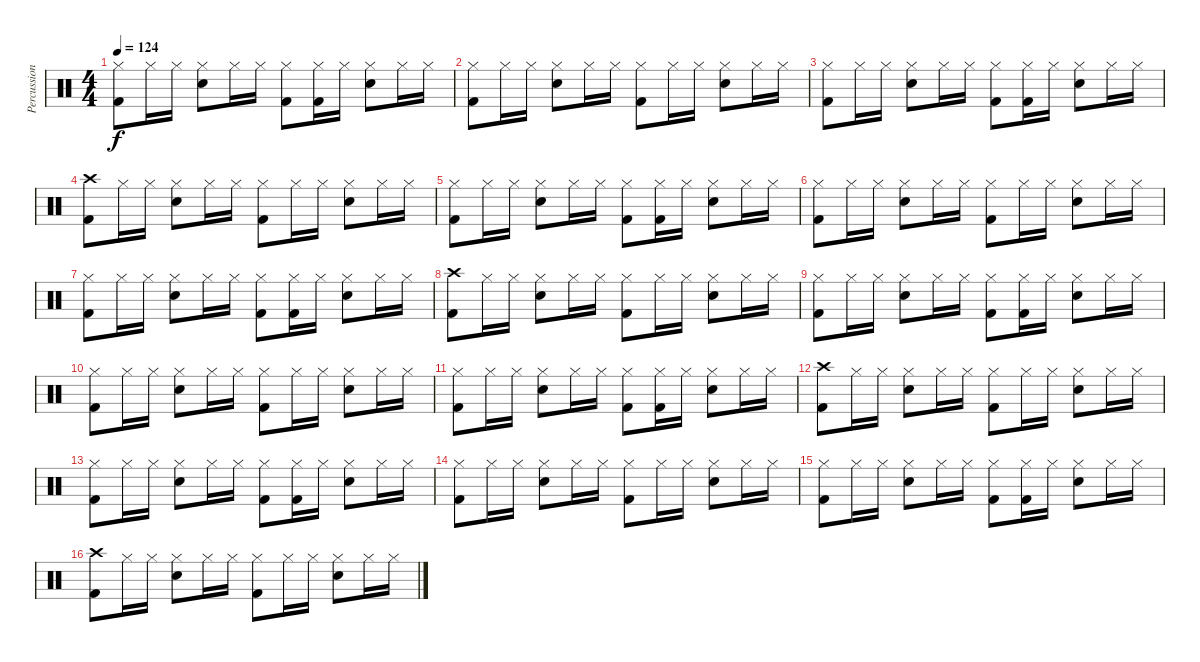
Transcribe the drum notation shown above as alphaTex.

\track ("Percussion" "Percussion") {instrument percussion}
\staff {score}
\articulation defaults
\ts (4 4)
\tempo 124
\clef neutral
\ks c
("Hi-Hat (closed)" "Kick (hit) 2").8{dy f} "Hi-Hat (closed)".16 "Hi-Hat (closed)".16 ("Hi-Hat (closed)" "Snare (hit) 2").8 "Hi-Hat (closed)".16 "Hi-Hat (closed)".16 ("Hi-Hat (closed)" "Kick (hit) 2").8 ("Hi-Hat (closed)" "Kick (hit) 2").16 "Hi-Hat (closed)".16 ("Hi-Hat (closed)" "Snare (hit) 2").8 "Hi-Hat (closed)".16 "Hi-Hat (closed)".16 |
("Hi-Hat (closed)" "Kick (hit) 2").8 "Hi-Hat (closed)".16 "Hi-Hat (closed)".16 ("Hi-Hat (closed)" "Snare (hit) 2").8 "Hi-Hat (closed)".16 "Hi-Hat (closed)".16 ("Hi-Hat (closed)" "Kick (hit) 2").8 "Hi-Hat (closed)".16 "Hi-Hat (closed)".16 ("Hi-Hat (closed)" "Snare (hit) 2").8 "Hi-Hat (closed)".16 "Hi-Hat (closed)".16 |
("Hi-Hat (closed)" "Kick (hit) 2").8 "Hi-Hat (closed)".16 "Hi-Hat (closed)".16 ("Hi-Hat (closed)" "Snare (hit) 2").8 "Hi-Hat (closed)".16 "Hi-Hat (closed)".16 ("Hi-Hat (closed)" "Kick (hit) 2").8 ("Hi-Hat (closed)" "Kick (hit) 2").16 "Hi-Hat (closed)".16 ("Hi-Hat (closed)" "Snare (hit) 2").8 "Hi-Hat (closed)".16 "Hi-Hat (closed)".16 |
("Crash high (hit)" "Kick (hit) 2").8 "Hi-Hat (closed)".16 "Hi-Hat (closed)".16 ("Hi-Hat (closed)" "Snare (hit) 2").8 "Hi-Hat (closed)".16 "Hi-Hat (closed)".16 ("Hi-Hat (closed)" "Kick (hit) 2").8 "Hi-Hat (closed)".16 "Hi-Hat (closed)".16 ("Hi-Hat (closed)" "Snare (hit) 2").8 "Hi-Hat (closed)".16 "Hi-Hat (closed)".16 |
("Hi-Hat (closed)" "Kick (hit) 2").8 "Hi-Hat (closed)".16 "Hi-Hat (closed)".16 ("Hi-Hat (closed)" "Snare (hit) 2").8 "Hi-Hat (closed)".16 "Hi-Hat (closed)".16 ("Hi-Hat (closed)" "Kick (hit) 2").8 ("Hi-Hat (closed)" "Kick (hit) 2").16 "Hi-Hat (closed)".16 ("Hi-Hat (closed)" "Snare (hit) 2").8 "Hi-Hat (closed)".16 "Hi-Hat (closed)".16 |
("Hi-Hat (closed)" "Kick (hit) 2").8 "Hi-Hat (closed)".16 "Hi-Hat (closed)".16 ("Hi-Hat (closed)" "Snare (hit) 2").8 "Hi-Hat (closed)".16 "Hi-Hat (closed)".16 ("Hi-Hat (closed)" "Kick (hit) 2").8 "Hi-Hat (closed)".16 "Hi-Hat (closed)".16 ("Hi-Hat (closed)" "Snare (hit) 2").8 "Hi-Hat (closed)".16 "Hi-Hat (closed)".16 |
("Hi-Hat (closed)" "Kick (hit) 2").8 "Hi-Hat (closed)".16 "Hi-Hat (closed)".16 ("Hi-Hat (closed)" "Snare (hit) 2").8 "Hi-Hat (closed)".16 "Hi-Hat (closed)".16 ("Hi-Hat (closed)" "Kick (hit) 2").8 ("Hi-Hat (closed)" "Kick (hit) 2").16 "Hi-Hat (closed)".16 ("Hi-Hat (closed)" "Snare (hit) 2").8 "Hi-Hat (closed)".16 "Hi-Hat (closed)".16 |
("Crash high (hit)" "Kick (hit) 2").8 "Hi-Hat (closed)".16 "Hi-Hat (closed)".16 ("Hi-Hat (closed)" "Snare (hit) 2").8 "Hi-Hat (closed)".16 "Hi-Hat (closed)".16 ("Hi-Hat (closed)" "Kick (hit) 2").8 "Hi-Hat (closed)".16 "Hi-Hat (closed)".16 ("Hi-Hat (closed)" "Snare (hit) 2").8 "Hi-Hat (closed)".16 "Hi-Hat (closed)".16 |
("Hi-Hat (closed)" "Kick (hit) 2").8 "Hi-Hat (closed)".16 "Hi-Hat (closed)".16 ("Hi-Hat (closed)" "Snare (hit) 2").8 "Hi-Hat (closed)".16 "Hi-Hat (closed)".16 ("Hi-Hat (closed)" "Kick (hit) 2").8 ("Hi-Hat (closed)" "Kick (hit) 2").16 "Hi-Hat (closed)".16 ("Hi-Hat (closed)" "Snare (hit) 2").8 "Hi-Hat (closed)".16 "Hi-Hat (closed)".16 |
("Hi-Hat (closed)" "Kick (hit) 2").8 "Hi-Hat (closed)".16 "Hi-Hat (closed)".16 ("Hi-Hat (closed)" "Snare (hit) 2").8 "Hi-Hat (closed)".16 "Hi-Hat (closed)".16 ("Hi-Hat (closed)" "Kick (hit) 2").8 "Hi-Hat (closed)".16 "Hi-Hat (closed)".16 ("Hi-Hat (closed)" "Snare (hit) 2").8 "Hi-Hat (closed)".16 "Hi-Hat (closed)".16 |
("Hi-Hat (closed)" "Kick (hit) 2").8 "Hi-Hat (closed)".16 "Hi-Hat (closed)".16 ("Hi-Hat (closed)" "Snare (hit) 2").8 "Hi-Hat (closed)".16 "Hi-Hat (closed)".16 ("Hi-Hat (closed)" "Kick (hit) 2").8 ("Hi-Hat (closed)" "Kick (hit) 2").16 "Hi-Hat (closed)".16 ("Hi-Hat (closed)" "Snare (hit) 2").8 "Hi-Hat (closed)".16 "Hi-Hat (closed)".16 |
("Crash high (hit)" "Kick (hit) 2").8 "Hi-Hat (closed)".16 "Hi-Hat (closed)".16 ("Hi-Hat (closed)" "Snare (hit) 2").8 "Hi-Hat (closed)".16 "Hi-Hat (closed)".16 ("Hi-Hat (closed)" "Kick (hit) 2").8 "Hi-Hat (closed)".16 "Hi-Hat (closed)".16 ("Hi-Hat (closed)" "Snare (hit) 2").8 "Hi-Hat (closed)".16 "Hi-Hat (closed)".16 |
("Hi-Hat (closed)" "Kick (hit) 2").8 "Hi-Hat (closed)".16 "Hi-Hat (closed)".16 ("Hi-Hat (closed)" "Snare (hit) 2").8 "Hi-Hat (closed)".16 "Hi-Hat (closed)".16 ("Hi-Hat (closed)" "Kick (hit) 2").8 ("Hi-Hat (closed)" "Kick (hit) 2").16 "Hi-Hat (closed)".16 ("Hi-Hat (closed)" "Snare (hit) 2").8 "Hi-Hat (closed)".16 "Hi-Hat (closed)".16 |
("Hi-Hat (closed)" "Kick (hit) 2").8 "Hi-Hat (closed)".16 "Hi-Hat (closed)".16 ("Hi-Hat (closed)" "Snare (hit) 2").8 "Hi-Hat (closed)".16 "Hi-Hat (closed)".16 ("Hi-Hat (closed)" "Kick (hit) 2").8 "Hi-Hat (closed)".16 "Hi-Hat (closed)".16 ("Hi-Hat (closed)" "Snare (hit) 2").8 "Hi-Hat (closed)".16 "Hi-Hat (closed)".16 |
("Hi-Hat (closed)" "Kick (hit) 2").8 "Hi-Hat (closed)".16 "Hi-Hat (closed)".16 ("Hi-Hat (closed)" "Snare (hit) 2").8 "Hi-Hat (closed)".16 "Hi-Hat (closed)".16 ("Hi-Hat (closed)" "Kick (hit) 2").8 ("Hi-Hat (closed)" "Kick (hit) 2").16 "Hi-Hat (closed)".16 ("Hi-Hat (closed)" "Snare (hit) 2").8 "Hi-Hat (closed)".16 "Hi-Hat (closed)".16 |
("Crash high (hit)" "Kick (hit) 2").8 "Hi-Hat (closed)".16 "Hi-Hat (closed)".16 ("Hi-Hat (closed)" "Snare (hit) 2").8 "Hi-Hat (closed)".16 "Hi-Hat (closed)".16 ("Hi-Hat (closed)" "Kick (hit) 2").8 "Hi-Hat (closed)".16 "Hi-Hat (closed)".16 ("Hi-Hat (closed)" "Snare (hit) 2").8 "Hi-Hat (closed)".16 "Hi-Hat (closed)".16
